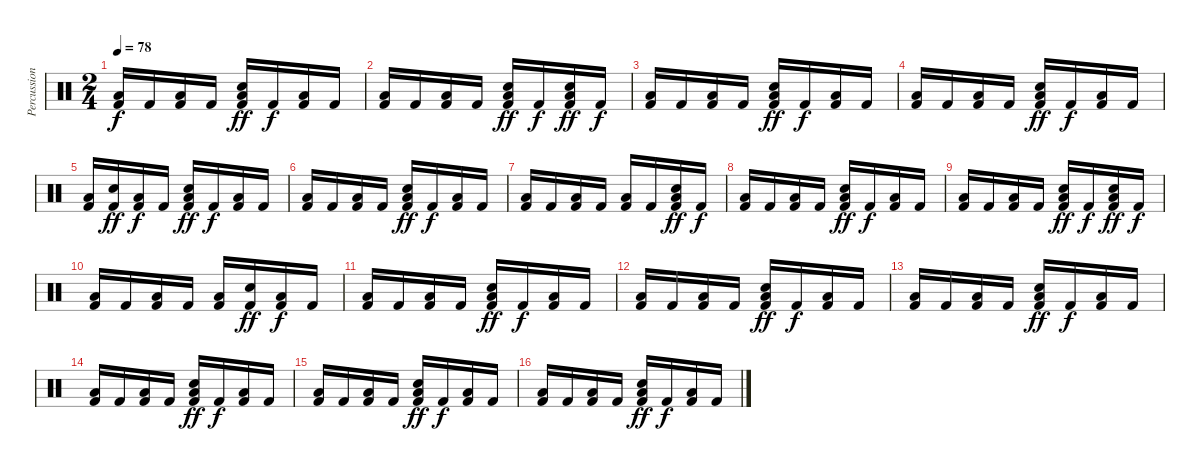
\track ("Percussion" "Percussion") {instrument percussion}
\staff {score}
\articulation defaults
\ts (2 4)
\tempo 78
\clef neutral
\ks c
("Kick (hit) 2" "Low Tom (hit)").16{dy f} "Kick (hit) 2".16 ("Kick (hit) 2" "Low Tom (hit)").16 "Kick (hit) 2".16 ("Kick (hit) 2" "Snare (hit) 2" "Low Tom (hit)").16{dy ff} "Kick (hit) 2".16{dy f} ("Kick (hit) 2" "Low Tom (hit)").16 "Kick (hit) 2".16 |
("Kick (hit) 2" "Low Tom (hit)").16 "Kick (hit) 2".16 ("Kick (hit) 2" "Low Tom (hit)").16 "Kick (hit) 2".16 ("Kick (hit) 2" "Snare (hit) 2" "Low Tom (hit)").16{dy ff} "Kick (hit) 2".16{dy f} ("Kick (hit) 2" "Snare (hit) 2" "Low Tom (hit)").16{dy ff} "Kick (hit) 2".16{dy f} |
("Kick (hit) 2" "Low Tom (hit)").16 "Kick (hit) 2".16 ("Kick (hit) 2" "Low Tom (hit)").16 "Kick (hit) 2".16 ("Kick (hit) 2" "Snare (hit) 2" "Low Tom (hit)").16{dy ff} "Kick (hit) 2".16{dy f} ("Kick (hit) 2" "Low Tom (hit)").16 "Kick (hit) 2".16 |
("Kick (hit) 2" "Low Tom (hit)").16 "Kick (hit) 2".16 ("Kick (hit) 2" "Low Tom (hit)").16 "Kick (hit) 2".16 ("Kick (hit) 2" "Snare (hit) 2" "Low Tom (hit)").16{dy ff} "Kick (hit) 2".16{dy f} ("Kick (hit) 2" "Low Tom (hit)").16 "Kick (hit) 2".16 |
("Kick (hit) 2" "Low Tom (hit)").16 ("Kick (hit) 2" "Snare (hit) 2").16{dy ff} ("Kick (hit) 2" "Low Tom (hit)").16{dy f} "Kick (hit) 2".16 ("Kick (hit) 2" "Snare (hit) 2" "Low Tom (hit)").16{dy ff} "Kick (hit) 2".16{dy f} ("Kick (hit) 2" "Low Tom (hit)").16 "Kick (hit) 2".16 |
("Kick (hit) 2" "Low Tom (hit)").16 "Kick (hit) 2".16 ("Kick (hit) 2" "Low Tom (hit)").16 "Kick (hit) 2".16 ("Kick (hit) 2" "Snare (hit) 2" "Low Tom (hit)").16{dy ff} "Kick (hit) 2".16{dy f} ("Kick (hit) 2" "Low Tom (hit)").16 "Kick (hit) 2".16 |
("Kick (hit) 2" "Low Tom (hit)").16 "Kick (hit) 2".16 ("Kick (hit) 2" "Low Tom (hit)").16 "Kick (hit) 2".16 ("Kick (hit) 2" "Low Tom (hit)").16 "Kick (hit) 2".16 ("Kick (hit) 2" "Snare (hit) 2" "Low Tom (hit)").16{dy ff} "Kick (hit) 2".16{dy f} |
("Kick (hit) 2" "Low Tom (hit)").16 "Kick (hit) 2".16 ("Kick (hit) 2" "Low Tom (hit)").16 "Kick (hit) 2".16 ("Kick (hit) 2" "Snare (hit) 2" "Low Tom (hit)").16{dy ff} "Kick (hit) 2".16{dy f} ("Kick (hit) 2" "Low Tom (hit)").16 "Kick (hit) 2".16 |
("Kick (hit) 2" "Low Tom (hit)").16 "Kick (hit) 2".16 ("Kick (hit) 2" "Low Tom (hit)").16 "Kick (hit) 2".16 ("Kick (hit) 2" "Snare (hit) 2" "Low Tom (hit)").16{dy ff} "Kick (hit) 2".16{dy f} ("Kick (hit) 2" "Snare (hit) 2" "Low Tom (hit)").16{dy ff} "Kick (hit) 2".16{dy f} |
("Kick (hit) 2" "Low Tom (hit)").16 "Kick (hit) 2".16 ("Kick (hit) 2" "Low Tom (hit)").16 "Kick (hit) 2".16 ("Kick (hit) 2" "Low Tom (hit)").16 ("Kick (hit) 2" "Snare (hit) 2").16{dy ff} ("Kick (hit) 2" "Low Tom (hit)").16{dy f} "Kick (hit) 2".16 |
("Kick (hit) 2" "Low Tom (hit)").16 "Kick (hit) 2".16 ("Kick (hit) 2" "Low Tom (hit)").16 "Kick (hit) 2".16 ("Kick (hit) 2" "Snare (hit) 2" "Low Tom (hit)").16{dy ff} "Kick (hit) 2".16{dy f} ("Kick (hit) 2" "Low Tom (hit)").16 "Kick (hit) 2".16 |
("Kick (hit) 2" "Low Tom (hit)").16 "Kick (hit) 2".16 ("Kick (hit) 2" "Low Tom (hit)").16 "Kick (hit) 2".16 ("Kick (hit) 2" "Snare (hit) 2" "Low Tom (hit)").16{dy ff} "Kick (hit) 2".16{dy f} ("Kick (hit) 2" "Low Tom (hit)").16 "Kick (hit) 2".16 |
("Kick (hit) 2" "Low Tom (hit)").16 "Kick (hit) 2".16 ("Kick (hit) 2" "Low Tom (hit)").16 "Kick (hit) 2".16 ("Kick (hit) 2" "Snare (hit) 2" "Low Tom (hit)").16{dy ff} "Kick (hit) 2".16{dy f} ("Kick (hit) 2" "Low Tom (hit)").16 "Kick (hit) 2".16 |
("Kick (hit) 2" "Low Tom (hit)").16 "Kick (hit) 2".16 ("Kick (hit) 2" "Low Tom (hit)").16 "Kick (hit) 2".16 ("Kick (hit) 2" "Snare (hit) 2" "Low Tom (hit)").16{dy ff} "Kick (hit) 2".16{dy f} ("Kick (hit) 2" "Low Tom (hit)").16 "Kick (hit) 2".16 |
("Kick (hit) 2" "Low Tom (hit)").16 "Kick (hit) 2".16 ("Kick (hit) 2" "Low Tom (hit)").16 "Kick (hit) 2".16 ("Kick (hit) 2" "Snare (hit) 2" "Low Tom (hit)").16{dy ff} "Kick (hit) 2".16{dy f} ("Kick (hit) 2" "Low Tom (hit)").16 "Kick (hit) 2".16 |
("Kick (hit) 2" "Low Tom (hit)").16 "Kick (hit) 2".16 ("Kick (hit) 2" "Low Tom (hit)").16 "Kick (hit) 2".16 ("Kick (hit) 2" "Snare (hit) 2" "Low Tom (hit)").16{dy ff} "Kick (hit) 2".16{dy f} ("Kick (hit) 2" "Low Tom (hit)").16 "Kick (hit) 2".16
